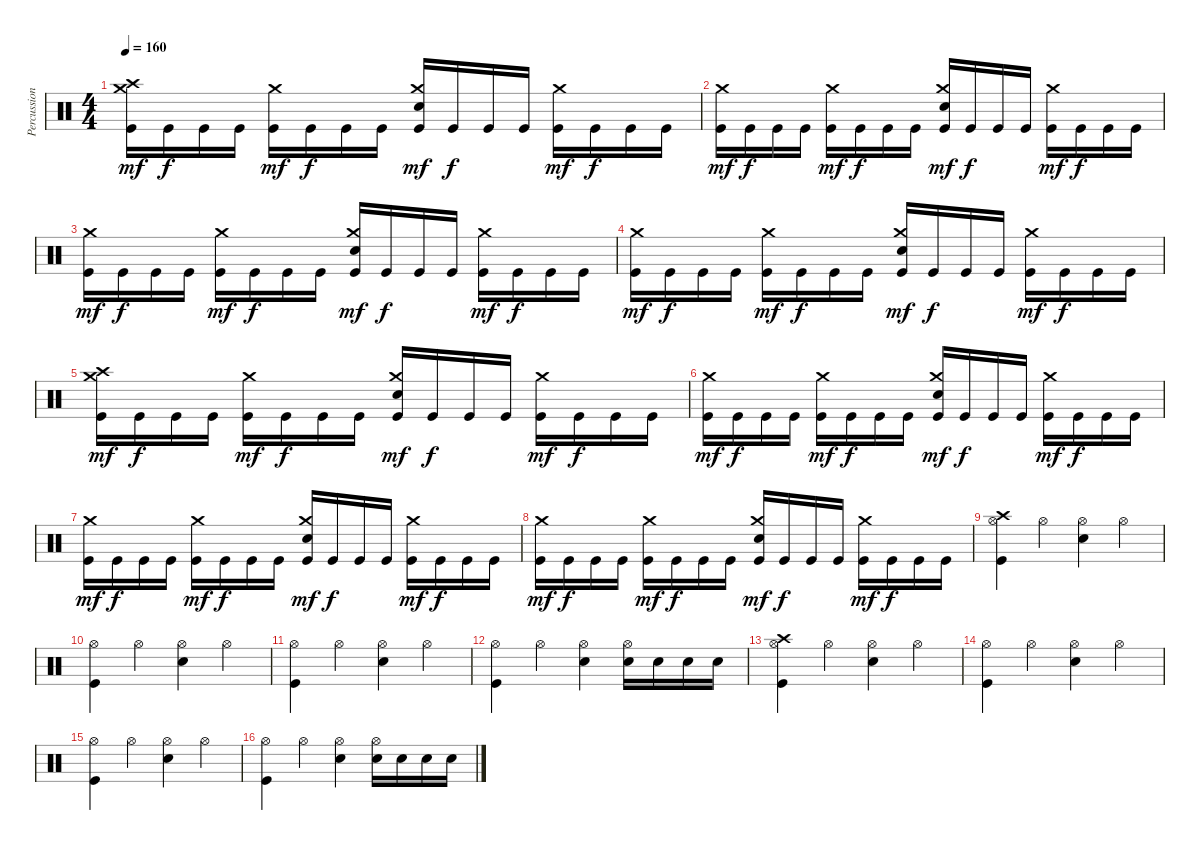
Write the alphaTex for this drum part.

\track ("Percussion" "Percussion") {instrument percussion}
\staff {score}
\articulation defaults
\ts (4 4)
\tempo 160
\clef neutral
\ks c
("Kick (hit)" "Crash medium (hit)" "Crash high (hit)").16{dy mf} "Kick (hit)".16{dy f} "Kick (hit)".16 "Kick (hit)".16 ("Kick (hit)" "Crash medium (hit)").16{dy mf} "Kick (hit)".16{dy f} "Kick (hit)".16 "Kick (hit)".16 ("Kick (hit)" "Electric Snare (hit)" "Crash medium (hit)").16{dy mf} "Kick (hit)".16{dy f} "Kick (hit)".16 "Kick (hit)".16 ("Kick (hit)" "Crash medium (hit)").16{dy mf} "Kick (hit)".16{dy f} "Kick (hit)".16 "Kick (hit)".16 |
("Kick (hit)" "Crash medium (hit)").16{dy mf} "Kick (hit)".16{dy f} "Kick (hit)".16 "Kick (hit)".16 ("Kick (hit)" "Crash medium (hit)").16{dy mf} "Kick (hit)".16{dy f} "Kick (hit)".16 "Kick (hit)".16 ("Kick (hit)" "Electric Snare (hit)" "Crash medium (hit)").16{dy mf} "Kick (hit)".16{dy f} "Kick (hit)".16 "Kick (hit)".16 ("Kick (hit)" "Crash medium (hit)").16{dy mf} "Kick (hit)".16{dy f} "Kick (hit)".16 "Kick (hit)".16 |
("Kick (hit)" "Crash medium (hit)").16{dy mf} "Kick (hit)".16{dy f} "Kick (hit)".16 "Kick (hit)".16 ("Kick (hit)" "Crash medium (hit)").16{dy mf} "Kick (hit)".16{dy f} "Kick (hit)".16 "Kick (hit)".16 ("Kick (hit)" "Electric Snare (hit)" "Crash medium (hit)").16{dy mf} "Kick (hit)".16{dy f} "Kick (hit)".16 "Kick (hit)".16 ("Kick (hit)" "Crash medium (hit)").16{dy mf} "Kick (hit)".16{dy f} "Kick (hit)".16 "Kick (hit)".16 |
("Kick (hit)" "Crash medium (hit)").16{dy mf} "Kick (hit)".16{dy f} "Kick (hit)".16 "Kick (hit)".16 ("Kick (hit)" "Crash medium (hit)").16{dy mf} "Kick (hit)".16{dy f} "Kick (hit)".16 "Kick (hit)".16 ("Kick (hit)" "Electric Snare (hit)" "Crash medium (hit)").16{dy mf} "Kick (hit)".16{dy f} "Kick (hit)".16 "Kick (hit)".16 ("Kick (hit)" "Crash medium (hit)").16{dy mf} "Kick (hit)".16{dy f} "Kick (hit)".16 "Kick (hit)".16 |
("Kick (hit)" "Crash medium (hit)" "Crash high (hit)").16{dy mf} "Kick (hit)".16{dy f} "Kick (hit)".16 "Kick (hit)".16 ("Kick (hit)" "Crash medium (hit)").16{dy mf} "Kick (hit)".16{dy f} "Kick (hit)".16 "Kick (hit)".16 ("Kick (hit)" "Electric Snare (hit)" "Crash medium (hit)").16{dy mf} "Kick (hit)".16{dy f} "Kick (hit)".16 "Kick (hit)".16 ("Kick (hit)" "Crash medium (hit)").16{dy mf} "Kick (hit)".16{dy f} "Kick (hit)".16 "Kick (hit)".16 |
("Kick (hit)" "Crash medium (hit)").16{dy mf} "Kick (hit)".16{dy f} "Kick (hit)".16 "Kick (hit)".16 ("Kick (hit)" "Crash medium (hit)").16{dy mf} "Kick (hit)".16{dy f} "Kick (hit)".16 "Kick (hit)".16 ("Kick (hit)" "Electric Snare (hit)" "Crash medium (hit)").16{dy mf} "Kick (hit)".16{dy f} "Kick (hit)".16 "Kick (hit)".16 ("Kick (hit)" "Crash medium (hit)").16{dy mf} "Kick (hit)".16{dy f} "Kick (hit)".16 "Kick (hit)".16 |
("Kick (hit)" "Crash medium (hit)").16{dy mf} "Kick (hit)".16{dy f} "Kick (hit)".16 "Kick (hit)".16 ("Kick (hit)" "Crash medium (hit)").16{dy mf} "Kick (hit)".16{dy f} "Kick (hit)".16 "Kick (hit)".16 ("Kick (hit)" "Electric Snare (hit)" "Crash medium (hit)").16{dy mf} "Kick (hit)".16{dy f} "Kick (hit)".16 "Kick (hit)".16 ("Kick (hit)" "Crash medium (hit)").16{dy mf} "Kick (hit)".16{dy f} "Kick (hit)".16 "Kick (hit)".16 |
("Kick (hit)" "Crash medium (hit)").16{dy mf} "Kick (hit)".16{dy f} "Kick (hit)".16 "Kick (hit)".16 ("Kick (hit)" "Crash medium (hit)").16{dy mf} "Kick (hit)".16{dy f} "Kick (hit)".16 "Kick (hit)".16 ("Kick (hit)" "Electric Snare (hit)" "Crash medium (hit)").16{dy mf} "Kick (hit)".16{dy f} "Kick (hit)".16 "Kick (hit)".16 ("Kick (hit)" "Crash medium (hit)").16{dy mf} "Kick (hit)".16{dy f} "Kick (hit)".16 "Kick (hit)".16 |
("Kick (hit)" "Crash high (hit)" "Hi-Hat (open)").4 "Hi-Hat (open)".4 ("Electric Snare (hit)" "Hi-Hat (open)").4 "Hi-Hat (open)".4 |
("Kick (hit)" "Hi-Hat (open)").4 "Hi-Hat (open)".4 ("Electric Snare (hit)" "Hi-Hat (open)").4 "Hi-Hat (open)".4 |
("Kick (hit)" "Hi-Hat (open)").4 "Hi-Hat (open)".4 ("Electric Snare (hit)" "Hi-Hat (open)").4 "Hi-Hat (open)".4 |
("Kick (hit)" "Hi-Hat (open)").4 "Hi-Hat (open)".4 ("Electric Snare (hit)" "Hi-Hat (open)").4 ("Electric Snare (hit)" "Hi-Hat (open)").16 "Electric Snare (hit)".16 "Electric Snare (hit)".16 "Electric Snare (hit)".16 |
("Kick (hit)" "Crash high (hit)" "Hi-Hat (open)").4 "Hi-Hat (open)".4 ("Electric Snare (hit)" "Hi-Hat (open)").4 "Hi-Hat (open)".4 |
("Kick (hit)" "Hi-Hat (open)").4 "Hi-Hat (open)".4 ("Electric Snare (hit)" "Hi-Hat (open)").4 "Hi-Hat (open)".4 |
("Kick (hit)" "Hi-Hat (open)").4 "Hi-Hat (open)".4 ("Electric Snare (hit)" "Hi-Hat (open)").4 "Hi-Hat (open)".4 |
("Kick (hit)" "Hi-Hat (open)").4 "Hi-Hat (open)".4 ("Electric Snare (hit)" "Hi-Hat (open)").4 ("Electric Snare (hit)" "Hi-Hat (open)").16 "Electric Snare (hit)".16 "Electric Snare (hit)".16 "Electric Snare (hit)".16
